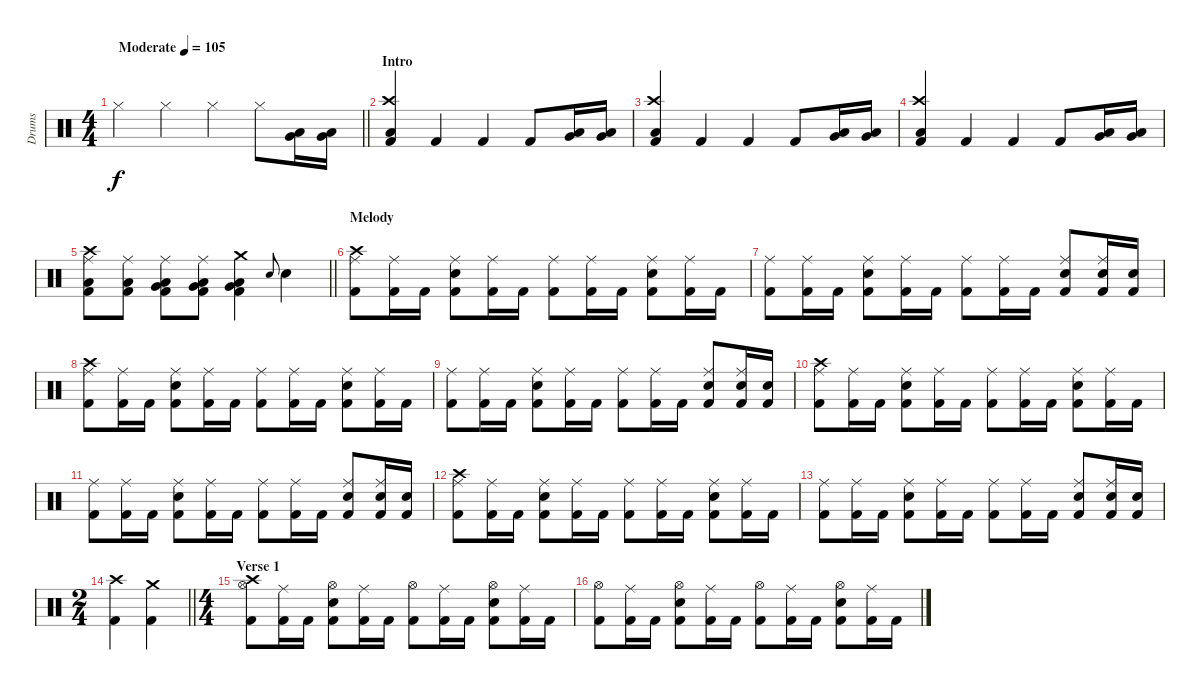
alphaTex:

\track ("Drums" "Drums") {instrument percussion}
\staff {score}
\articulation defaults
\ts (4 4)
\tempo (105 "Moderate")
\clef neutral
\barLineRight lightlight
\ks c "Hi-Hat (closed)".4{dy f} "Hi-Hat (closed)".4 "Hi-Hat (closed)".4 "Hi-Hat (closed)".8
("Very Low Tom (hit)" "Low Floor Tom (hit)").16 ("Very Low Tom (hit)" "Low Floor Tom (hit)").16 |
\section ("" "Intro")
("Crash high (hit)" "Low Floor Tom (hit)" "Kick (hit) 2").4 "Kick (hit) 2".4 "Kick (hit) 2".4 "Kick (hit) 2".8 ("Very Low Tom (hit)" "Low Floor Tom (hit)").16 ("Very Low Tom (hit)" "Low Floor Tom (hit)").16 |
("Crash high (hit)" "Low Floor Tom (hit)" "Kick (hit) 2").4 "Kick (hit) 2".4 "Kick (hit) 2".4 "Kick (hit) 2".8 ("Very Low Tom (hit)" "Low Floor Tom (hit)").16 ("Very Low Tom (hit)" "Low Floor Tom (hit)").16 |
("Crash high (hit)" "Low Floor Tom (hit)" "Kick (hit) 2").4 "Kick (hit) 2".4 "Kick (hit) 2".4 "Kick (hit) 2".8 ("Very Low Tom (hit)" "Low Floor Tom (hit)").16 ("Very Low Tom (hit)" "Low Floor Tom (hit)").16 |
\barLineRight lightlight
("Crash high (hit)" "Ride (middle)" "Low Floor Tom (hit)" "Kick (hit) 2").8 ("Ride (middle)" "Low Floor Tom (hit)" "Kick (hit) 2").8 ("Ride (middle)" "Very Low Tom (hit)" "Low Floor Tom (hit)" "Kick (hit) 2").8 ("Ride (middle)" "Very Low Tom (hit)" "Low Floor Tom (hit)" "Kick (hit) 2").8 ("Crash medium (hit)" "Very Low Tom (hit)" "Low Floor Tom (hit)" "Kick (hit) 2").4 "Snare (hit) 2".8{gr onbeat} "Snare (hit) 2".4 |
\section ("" "Melody")
("Crash high (hit)" "Ride (middle)" "Kick (hit) 2").8 ("Ride (middle)" "Kick (hit) 2").16 "Kick (hit) 2".16 ("Ride (middle)" "Snare (hit) 2" "Kick (hit) 2").8 ("Ride (middle)" "Kick (hit) 2").16 "Kick (hit) 2".16 ("Ride (middle)" "Kick (hit) 2").8 ("Ride (middle)" "Kick (hit) 2").16 "Kick (hit) 2".16 ("Ride (middle)" "Snare (hit) 2" "Kick (hit) 2").8 ("Ride (middle)" "Kick (hit) 2").16 "Kick (hit) 2".16 |
("Ride (middle)" "Kick (hit) 2").8 ("Ride (middle)" "Kick (hit) 2").16 "Kick (hit) 2".16 ("Ride (middle)" "Snare (hit) 2" "Kick (hit) 2").8 ("Ride (middle)" "Kick (hit) 2").16 "Kick (hit) 2".16 ("Ride (middle)" "Kick (hit) 2").8 ("Ride (middle)" "Kick (hit) 2").16 "Kick (hit) 2".16 ("Ride (middle)" "Snare (hit) 2" "Kick (hit) 2").8 ("Ride (middle)" "Snare (hit) 2" "Kick (hit) 2").16 ("Snare (hit) 2" "Kick (hit) 2").16 |
("Crash high (hit)" "Ride (middle)" "Kick (hit) 2").8 ("Ride (middle)" "Kick (hit) 2").16 "Kick (hit) 2".16 ("Ride (middle)" "Snare (hit) 2" "Kick (hit) 2").8 ("Ride (middle)" "Kick (hit) 2").16 "Kick (hit) 2".16 ("Ride (middle)" "Kick (hit) 2").8 ("Ride (middle)" "Kick (hit) 2").16 "Kick (hit) 2".16 ("Ride (middle)" "Snare (hit) 2" "Kick (hit) 2").8 ("Ride (middle)" "Kick (hit) 2").16 "Kick (hit) 2".16 |
("Ride (middle)" "Kick (hit) 2").8 ("Ride (middle)" "Kick (hit) 2").16 "Kick (hit) 2".16 ("Ride (middle)" "Snare (hit) 2" "Kick (hit) 2").8 ("Ride (middle)" "Kick (hit) 2").16 "Kick (hit) 2".16 ("Ride (middle)" "Kick (hit) 2").8 ("Ride (middle)" "Kick (hit) 2").16 "Kick (hit) 2".16 ("Ride (middle)" "Snare (hit) 2" "Kick (hit) 2").8 ("Ride (middle)" "Snare (hit) 2" "Kick (hit) 2").16 ("Snare (hit) 2" "Kick (hit) 2").16 |
("Crash high (hit)" "Ride (middle)" "Kick (hit) 2").8 ("Ride (middle)" "Kick (hit) 2").16 "Kick (hit) 2".16 ("Ride (middle)" "Snare (hit) 2" "Kick (hit) 2").8 ("Ride (middle)" "Kick (hit) 2").16 "Kick (hit) 2".16 ("Ride (middle)" "Kick (hit) 2").8 ("Ride (middle)" "Kick (hit) 2").16 "Kick (hit) 2".16 ("Ride (middle)" "Snare (hit) 2" "Kick (hit) 2").8 ("Ride (middle)" "Kick (hit) 2").16 "Kick (hit) 2".16 |
("Ride (middle)" "Kick (hit) 2").8 ("Ride (middle)" "Kick (hit) 2").16 "Kick (hit) 2".16 ("Ride (middle)" "Snare (hit) 2" "Kick (hit) 2").8 ("Ride (middle)" "Kick (hit) 2").16 "Kick (hit) 2".16 ("Ride (middle)" "Kick (hit) 2").8 ("Ride (middle)" "Kick (hit) 2").16 "Kick (hit) 2".16 ("Ride (middle)" "Snare (hit) 2" "Kick (hit) 2").8 ("Ride (middle)" "Snare (hit) 2" "Kick (hit) 2").16 ("Snare (hit) 2" "Kick (hit) 2").16 |
("Crash high (hit)" "Ride (middle)" "Kick (hit) 2").8 ("Ride (middle)" "Kick (hit) 2").16 "Kick (hit) 2".16 ("Ride (middle)" "Snare (hit) 2" "Kick (hit) 2").8 ("Ride (middle)" "Kick (hit) 2").16 "Kick (hit) 2".16 ("Ride (middle)" "Kick (hit) 2").8 ("Ride (middle)" "Kick (hit) 2").16 "Kick (hit) 2".16 ("Ride (middle)" "Snare (hit) 2" "Kick (hit) 2").8 ("Ride (middle)" "Kick (hit) 2").16 "Kick (hit) 2".16 |
("Ride (middle)" "Kick (hit) 2").8 ("Ride (middle)" "Kick (hit) 2").16 "Kick (hit) 2".16 ("Ride (middle)" "Snare (hit) 2" "Kick (hit) 2").8 ("Ride (middle)" "Kick (hit) 2").16 "Kick (hit) 2".16 ("Ride (middle)" "Kick (hit) 2").8 ("Ride (middle)" "Kick (hit) 2").16 "Kick (hit) 2".16 ("Ride (middle)" "Snare (hit) 2" "Kick (hit) 2").8 ("Ride (middle)" "Snare (hit) 2" "Kick (hit) 2").16 ("Snare (hit) 2" "Kick (hit) 2").16 |
\ts (2 4)
\barLineRight lightlight
("Crash high (hit)" "Kick (hit) 2").4 ("Crash medium (hit)" "Kick (hit) 2").4 |
\ts (4 4)
\section ("" "Verse 1")
("Crash high (hit)" "Hi-Hat (open)" "Kick (hit) 2").8 ("Ride (middle)" "Kick (hit) 2").16 "Kick (hit) 2".16 ("Hi-Hat (open)" "Snare (hit) 2" "Kick (hit) 2").8 ("Ride (middle)" "Kick (hit) 2").16 "Kick (hit) 2".16 ("Hi-Hat (open)" "Kick (hit) 2").8 ("Ride (middle)" "Kick (hit) 2").16 "Kick (hit) 2".16 ("Hi-Hat (open)" "Snare (hit) 2" "Kick (hit) 2").8 ("Ride (middle)" "Kick (hit) 2").16 "Kick (hit) 2".16 |
("Hi-Hat (open)" "Kick (hit) 2").8 ("Ride (middle)" "Kick (hit) 2").16 "Kick (hit) 2".16 ("Hi-Hat (open)" "Snare (hit) 2" "Kick (hit) 2").8 ("Ride (middle)" "Kick (hit) 2").16 "Kick (hit) 2".16 ("Hi-Hat (open)" "Kick (hit) 2").8 ("Ride (middle)" "Kick (hit) 2").16 "Kick (hit) 2".16 ("Hi-Hat (open)" "Snare (hit) 2" "Kick (hit) 2").8 ("Ride (middle)" "Kick (hit) 2").16 "Kick (hit) 2".16
